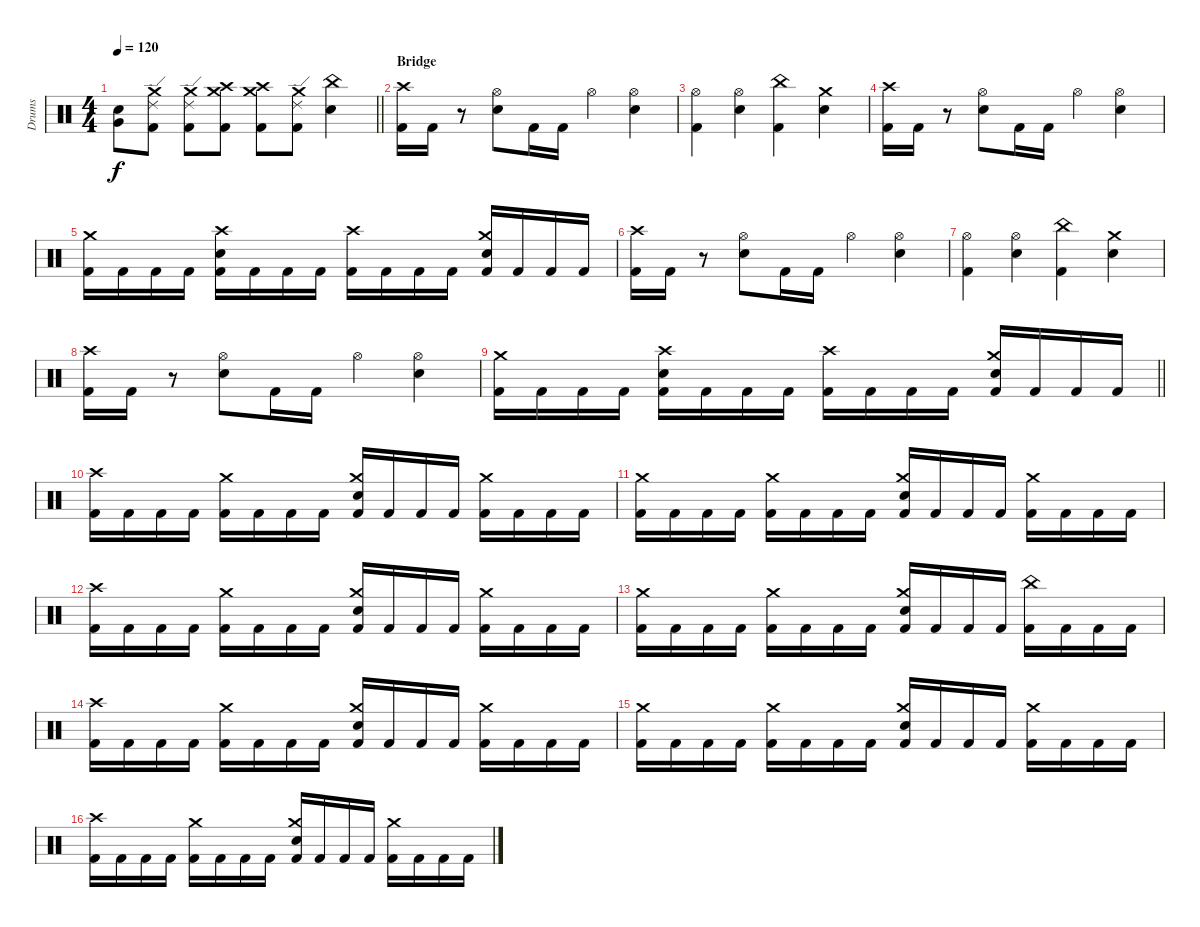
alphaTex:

\track ("Drums" "Drums") {instrument percussion}
\staff {score}
\articulation defaults
\ts (4 4)
\tempo 120
\clef neutral
\barLineRight lightlight
\ks c
("Electric Snare (hit)" "Very Low Tom (hit)").8{dy f} ("Crash medium (hit)" "Ride (edge) 2" "Kick (hit) 2").8 ("Crash medium (hit)" "Ride (edge) 2" "Kick (hit) 2").8 ("Crash high (hit)" "Crash medium (hit)" "Kick (hit) 2").8 ("Crash high (hit)" "Crash medium (hit)" "Kick (hit) 2").8 ("Crash medium (hit)" "Ride (edge) 2" "Kick (hit) 2").8 ("China (hit)" "Electric Snare (hit)").4 |
\section ("" "Bridge")
("Crash high (hit)" "Kick (hit) 2").16 "Kick (hit) 2".16 r.8 ("Hi-Hat (open)" "Electric Snare (hit)").8 "Kick (hit) 2".16 "Kick (hit) 2".16 "Hi-Hat (open)".4 ("Hi-Hat (open)" "Electric Snare (hit)").4 |
("Hi-Hat (open)" "Kick (hit) 2").4 ("Hi-Hat (open)" "Electric Snare (hit)").4 ("China (hit)" "Kick (hit) 2").4 ("Crash medium (hit)" "Electric Snare (hit)").4 |
("Crash high (hit)" "Kick (hit) 2").16 "Kick (hit) 2".16 r.8 ("Hi-Hat (open)" "Electric Snare (hit)").8 "Kick (hit) 2".16 "Kick (hit) 2".16 "Hi-Hat (open)".4 ("Hi-Hat (open)" "Electric Snare (hit)").4 |
("Crash medium (hit)" "Kick (hit) 2").16 "Kick (hit) 2".16 "Kick (hit) 2".16 "Kick (hit) 2".16 ("Crash high (hit)" "Electric Snare (hit)" "Kick (hit) 2").16 "Kick (hit) 2".16 "Kick (hit) 2".16 "Kick (hit) 2".16 ("Crash high (hit)" "Kick (hit) 2").16 "Kick (hit) 2".16 "Kick (hit) 2".16 "Kick (hit) 2".16 ("Crash medium (hit)" "Electric Snare (hit)" "Kick (hit) 2").16 "Kick (hit) 2".16 "Kick (hit) 2".16 "Kick (hit) 2".16 |
("Crash high (hit)" "Kick (hit) 2").16 "Kick (hit) 2".16 r.8 ("Hi-Hat (open)" "Electric Snare (hit)").8 "Kick (hit) 2".16 "Kick (hit) 2".16 "Hi-Hat (open)".4 ("Hi-Hat (open)" "Electric Snare (hit)").4 |
("Hi-Hat (open)" "Kick (hit) 2").4 ("Hi-Hat (open)" "Electric Snare (hit)").4 ("China (hit)" "Kick (hit) 2").4 ("Crash medium (hit)" "Electric Snare (hit)").4 |
("Crash high (hit)" "Kick (hit) 2").16 "Kick (hit) 2".16 r.8 ("Hi-Hat (open)" "Electric Snare (hit)").8 "Kick (hit) 2".16 "Kick (hit) 2".16 "Hi-Hat (open)".4 ("Hi-Hat (open)" "Electric Snare (hit)").4 |
\barLineRight lightlight
("Crash medium (hit)" "Kick (hit) 2").16 "Kick (hit) 2".16 "Kick (hit) 2".16 "Kick (hit) 2".16 ("Crash high (hit)" "Electric Snare (hit)" "Kick (hit) 2").16 "Kick (hit) 2".16 "Kick (hit) 2".16 "Kick (hit) 2".16 ("Crash high (hit)" "Kick (hit) 2").16 "Kick (hit) 2".16 "Kick (hit) 2".16 "Kick (hit) 2".16 ("Crash medium (hit)" "Electric Snare (hit)" "Kick (hit) 2").16 "Kick (hit) 2".16 "Kick (hit) 2".16 "Kick (hit) 2".16 |
\section ("" "")
("Crash high (hit)" "Kick (hit) 2").16 "Kick (hit) 2".16 "Kick (hit) 2".16 "Kick (hit) 2".16 ("Crash medium (hit)" "Kick (hit) 2").16 "Kick (hit) 2".16 "Kick (hit) 2".16 "Kick (hit) 2".16 ("Crash medium (hit)" "Electric Snare (hit)" "Kick (hit) 2").16 "Kick (hit) 2".16 "Kick (hit) 2".16 "Kick (hit) 2".16 ("Crash medium (hit)" "Kick (hit) 2").16 "Kick (hit) 2".16 "Kick (hit) 2".16 "Kick (hit) 2".16 |
("Crash medium (hit)" "Kick (hit) 2").16 "Kick (hit) 2".16 "Kick (hit) 2".16 "Kick (hit) 2".16 ("Crash medium (hit)" "Kick (hit) 2").16 "Kick (hit) 2".16 "Kick (hit) 2".16 "Kick (hit) 2".16 ("Crash medium (hit)" "Electric Snare (hit)" "Kick (hit) 2").16 "Kick (hit) 2".16 "Kick (hit) 2".16 "Kick (hit) 2".16 ("Crash medium (hit)" "Kick (hit) 2").16 "Kick (hit) 2".16 "Kick (hit) 2".16 "Kick (hit) 2".16 |
("Crash high (hit)" "Kick (hit) 2").16 "Kick (hit) 2".16 "Kick (hit) 2".16 "Kick (hit) 2".16 ("Crash medium (hit)" "Kick (hit) 2").16 "Kick (hit) 2".16 "Kick (hit) 2".16 "Kick (hit) 2".16 ("Crash medium (hit)" "Electric Snare (hit)" "Kick (hit) 2").16 "Kick (hit) 2".16 "Kick (hit) 2".16 "Kick (hit) 2".16 ("Crash medium (hit)" "Kick (hit) 2").16 "Kick (hit) 2".16 "Kick (hit) 2".16 "Kick (hit) 2".16 |
("Crash medium (hit)" "Kick (hit) 2").16 "Kick (hit) 2".16 "Kick (hit) 2".16 "Kick (hit) 2".16 ("Crash medium (hit)" "Kick (hit) 2").16 "Kick (hit) 2".16 "Kick (hit) 2".16 "Kick (hit) 2".16 ("Crash medium (hit)" "Electric Snare (hit)" "Kick (hit) 2").16 "Kick (hit) 2".16 "Kick (hit) 2".16 "Kick (hit) 2".16 ("China (hit)" "Kick (hit) 2").16 "Kick (hit) 2".16 "Kick (hit) 2".16 "Kick (hit) 2".16 |
("Crash high (hit)" "Kick (hit) 2").16 "Kick (hit) 2".16 "Kick (hit) 2".16 "Kick (hit) 2".16 ("Crash medium (hit)" "Kick (hit) 2").16 "Kick (hit) 2".16 "Kick (hit) 2".16 "Kick (hit) 2".16 ("Crash medium (hit)" "Electric Snare (hit)" "Kick (hit) 2").16 "Kick (hit) 2".16 "Kick (hit) 2".16 "Kick (hit) 2".16 ("Crash medium (hit)" "Kick (hit) 2").16 "Kick (hit) 2".16 "Kick (hit) 2".16 "Kick (hit) 2".16 |
("Crash medium (hit)" "Kick (hit) 2").16 "Kick (hit) 2".16 "Kick (hit) 2".16 "Kick (hit) 2".16 ("Crash medium (hit)" "Kick (hit) 2").16 "Kick (hit) 2".16 "Kick (hit) 2".16 "Kick (hit) 2".16 ("Crash medium (hit)" "Electric Snare (hit)" "Kick (hit) 2").16 "Kick (hit) 2".16 "Kick (hit) 2".16 "Kick (hit) 2".16 ("Crash medium (hit)" "Kick (hit) 2").16 "Kick (hit) 2".16 "Kick (hit) 2".16 "Kick (hit) 2".16 |
("Crash high (hit)" "Kick (hit) 2").16 "Kick (hit) 2".16 "Kick (hit) 2".16 "Kick (hit) 2".16 ("Crash medium (hit)" "Kick (hit) 2").16 "Kick (hit) 2".16 "Kick (hit) 2".16 "Kick (hit) 2".16 ("Crash medium (hit)" "Electric Snare (hit)" "Kick (hit) 2").16 "Kick (hit) 2".16 "Kick (hit) 2".16 "Kick (hit) 2".16 ("Crash medium (hit)" "Kick (hit) 2").16 "Kick (hit) 2".16 "Kick (hit) 2".16 "Kick (hit) 2".16
